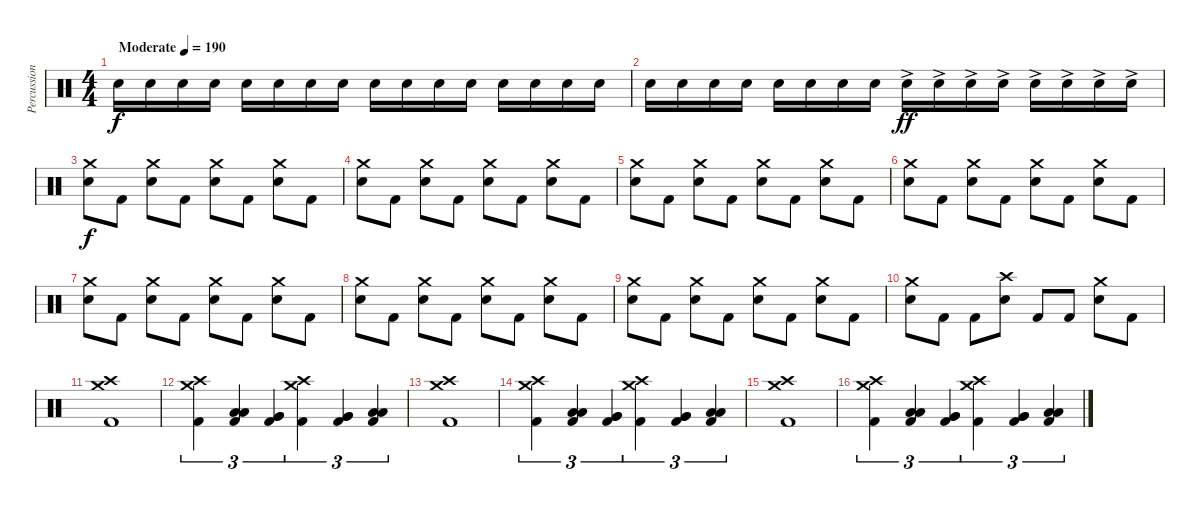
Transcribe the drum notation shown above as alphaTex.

\track ("Percussion" "Percussion") {instrument percussion}
\staff {score}
\articulation defaults
\ts (4 4)
\tempo (190 "Moderate")
\clef neutral
\ks c "Snare (hit) 2".16{dy f volume 2} "Snare (hit) 2".16{volume 13} "Snare (hit) 2".16 "Snare (hit) 2".16 "Snare (hit) 2".16 "Snare (hit) 2".16 "Snare (hit) 2".16 "Snare (hit) 2".16 "Snare (hit) 2".16 "Snare (hit) 2".16 "Snare (hit) 2".16 "Snare (hit) 2".16 "Snare (hit) 2".16 "Snare (hit) 2".16 "Snare (hit) 2".16 "Snare (hit) 2".16
|
"Snare (hit) 2".16 "Snare (hit) 2".16 "Snare (hit) 2".16 "Snare (hit) 2".16 "Snare (hit) 2".16 "Snare (hit) 2".16 "Snare (hit) 2".16 "Snare (hit) 2".16 "Snare (hit) 2"{ac}.16{dy ff} "Snare (hit) 2"{ac}.16 "Snare (hit) 2"{ac}.16 "Snare (hit) 2"{ac}.16 "Snare (hit) 2"{ac}.16 "Snare (hit) 2"{ac}.16 "Snare (hit) 2"{ac}.16 "Snare (hit) 2"{ac}.16 |
("Crash medium (hit)" "Electric Snare (hit)").8{dy f} "Kick (hit) 2".8 ("Crash medium (hit)" "Electric Snare (hit)").8 "Kick (hit) 2".8 ("Crash medium (hit)" "Electric Snare (hit)").8 "Kick (hit) 2".8 ("Crash medium (hit)" "Electric Snare (hit)").8 "Kick (hit) 2".8 |
("Crash medium (hit)" "Electric Snare (hit)").8 "Kick (hit) 2".8 ("Crash medium (hit)" "Electric Snare (hit)").8 "Kick (hit) 2".8 ("Crash medium (hit)" "Electric Snare (hit)").8 "Kick (hit) 2".8 ("Crash medium (hit)" "Electric Snare (hit)").8 "Kick (hit) 2".8 |
("Crash medium (hit)" "Electric Snare (hit)").8 "Kick (hit) 2".8 ("Crash medium (hit)" "Electric Snare (hit)").8 "Kick (hit) 2".8 ("Crash medium (hit)" "Electric Snare (hit)").8 "Kick (hit) 2".8 ("Crash medium (hit)" "Electric Snare (hit)").8 "Kick (hit) 2".8 |
("Crash medium (hit)" "Electric Snare (hit)").8 "Kick (hit) 2".8 ("Crash medium (hit)" "Electric Snare (hit)").8 "Kick (hit) 2".8 ("Crash medium (hit)" "Electric Snare (hit)").8 "Kick (hit) 2".8 ("Crash medium (hit)" "Electric Snare (hit)").8 "Kick (hit) 2".8 |
("Crash medium (hit)" "Electric Snare (hit)").8 "Kick (hit) 2".8 ("Crash medium (hit)" "Electric Snare (hit)").8 "Kick (hit) 2".8 ("Crash medium (hit)" "Electric Snare (hit)").8 "Kick (hit) 2".8 ("Crash medium (hit)" "Electric Snare (hit)").8 "Kick (hit) 2".8 |
("Crash medium (hit)" "Electric Snare (hit)").8 "Kick (hit) 2".8 ("Crash medium (hit)" "Electric Snare (hit)").8 "Kick (hit) 2".8 ("Crash medium (hit)" "Electric Snare (hit)").8 "Kick (hit) 2".8 ("Crash medium (hit)" "Electric Snare (hit)").8 "Kick (hit) 2".8 |
("Crash medium (hit)" "Electric Snare (hit)").8 "Kick (hit) 2".8 ("Crash medium (hit)" "Electric Snare (hit)").8 "Kick (hit) 2".8 ("Crash medium (hit)" "Electric Snare (hit)").8 "Kick (hit) 2".8 ("Crash medium (hit)" "Electric Snare (hit)").8 "Kick (hit) 2".8 |
("Crash medium (hit)" "Electric Snare (hit)").8 "Kick (hit) 2".8 "Kick (hit) 2".8 ("Crash high (hit)" "Electric Snare (hit)").8 "Kick (hit) 2".8 "Kick (hit) 2".8 ("Crash medium (hit)" "Electric Snare (hit)").8 "Kick (hit) 2".8 |
("Crash high (hit)" "Crash medium (hit)" "Kick (hit) 2").1 |
("Crash medium (hit)" "Crash high (hit)" "Kick (hit) 2").4{tu (3 2)} ("Low Tom (hit)" "Low Tom (hit)" "Kick (hit) 2").4{tu (3 2)} ("Very Low Tom (hit)" "Very Low Tom (hit)" "Kick (hit) 2").4{tu (3 2)} ("Crash medium (hit)" "Crash high (hit)" "Kick (hit) 2").4{tu (3 2)} ("Very Low Tom (hit)" "Very Low Tom (hit)" "Kick (hit) 2").4{tu (3 2)} ("Low Floor Tom (hit)" "Low Floor Tom (hit)" "Kick (hit) 2").4{tu (3 2)} |
("Crash high (hit)" "Crash medium (hit)" "Kick (hit) 2").1 |
("Crash medium (hit)" "Crash high (hit)" "Kick (hit) 2").4{tu (3 2)} ("Low Tom (hit)" "Low Tom (hit)" "Kick (hit) 2").4{tu (3 2)} ("Very Low Tom (hit)" "Very Low Tom (hit)" "Kick (hit) 2").4{tu (3 2)} ("Crash medium (hit)" "Crash high (hit)" "Kick (hit) 2").4{tu (3 2)} ("Very Low Tom (hit)" "Very Low Tom (hit)" "Kick (hit) 2").4{tu (3 2)} ("Low Floor Tom (hit)" "Low Floor Tom (hit)" "Kick (hit) 2").4{tu (3 2)} |
("Crash high (hit)" "Crash medium (hit)" "Kick (hit) 2").1 |
("Crash medium (hit)" "Crash high (hit)" "Kick (hit) 2").4{tu (3 2)} ("Low Tom (hit)" "Low Tom (hit)" "Kick (hit) 2").4{tu (3 2)} ("Very Low Tom (hit)" "Very Low Tom (hit)" "Kick (hit) 2").4{tu (3 2)} ("Crash medium (hit)" "Crash high (hit)" "Kick (hit) 2").4{tu (3 2)} ("Very Low Tom (hit)" "Very Low Tom (hit)" "Kick (hit) 2").4{tu (3 2)} ("Low Floor Tom (hit)" "Low Floor Tom (hit)" "Kick (hit) 2").4{tu (3 2)}
